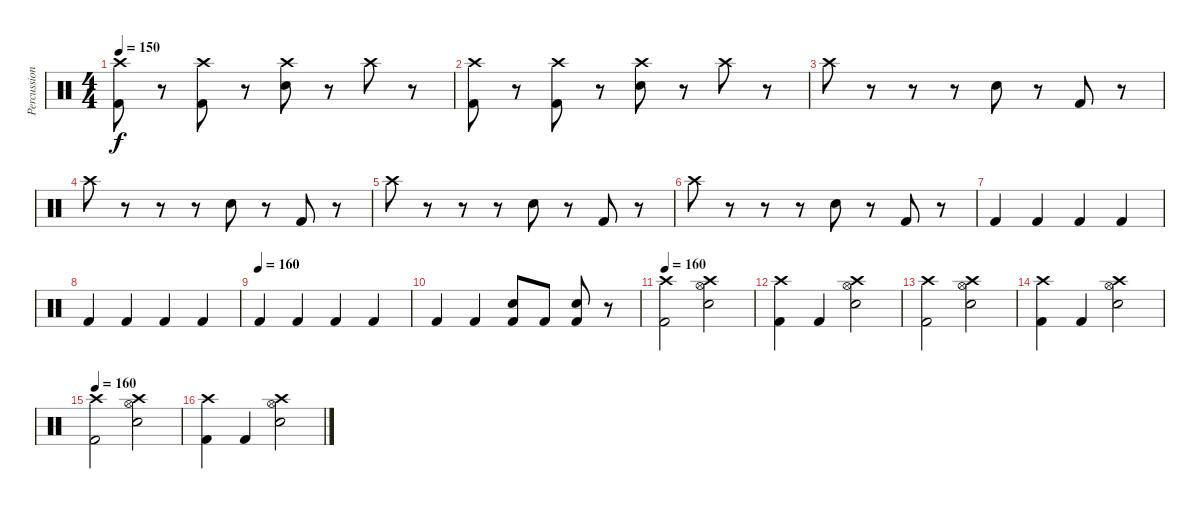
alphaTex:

\track ("Percussion [Patrick Wilson]" "Percussion") {instrument percussion}
\staff {score}
\articulation defaults
\ts (4 4)
\tempo 150
\clef neutral
\ks c
("Crash high (hit)" "Kick (hit) 2").8{dy f volume 13} r.8 ("Crash high (hit)" "Kick (hit) 2").8 r.8 ("Crash high (hit)" "Snare (hit) 2").8 r.8 "Crash high (hit)".8 r.8 |
("Crash high (hit)" "Kick (hit) 2").8 r.8 ("Crash high (hit)" "Kick (hit) 2").8 r.8 ("Crash high (hit)" "Snare (hit) 2").8 r.8 "Crash high (hit)".8 r.8 |
"Crash high (hit)".8 r.8 r.8 r.8 "Snare (hit) 2".8 r.8 "Kick (hit) 2".8 r.8 |
"Crash high (hit)".8 r.8 r.8 r.8 "Snare (hit) 2".8 r.8 "Kick (hit) 2".8 r.8 |
"Crash high (hit)".8{volume 13} r.8 r.8 r.8 "Snare (hit) 2".8 r.8 "Kick (hit) 2".8 r.8 |
"Crash high (hit)".8 r.8 r.8 r.8 "Snare (hit) 2".8 r.8 "Kick (hit) 2".8 r.8 |
"Kick (hit) 2".4{volume 13} "Kick (hit) 2".4 "Kick (hit) 2".4 "Kick (hit) 2".4 |
"Kick (hit) 2".4 "Kick (hit) 2".4 "Kick (hit) 2".4 "Kick (hit) 2".4 |
\tempo (160)
"Kick (hit) 2".4{volume 13} "Kick (hit) 2".4 "Kick (hit) 2".4 "Kick (hit) 2".4 |
"Kick (hit) 2".4 "Kick (hit) 2".4 ("Snare (hit) 2" "Kick (hit) 2").8 "Kick (hit) 2".8 ("Snare (hit) 2" "Kick (hit) 2").8 r.8 |
\tempo 160
("Crash high (hit)" "Kick (hit) 2").2{volume 13} ("Crash high (hit)" "Hi-Hat (open)" "Snare (hit) 2").2 |
("Crash high (hit)" "Kick (hit) 2").4 "Kick (hit) 2".4 ("Crash high (hit)" "Hi-Hat (open)" "Snare (hit) 2").2 |
("Crash high (hit)" "Kick (hit) 2").2 ("Crash high (hit)" "Hi-Hat (open)" "Snare (hit) 2").2 |
("Crash high (hit)" "Kick (hit) 2").4 "Kick (hit) 2".4 ("Crash high (hit)" "Hi-Hat (open)" "Snare (hit) 2").2 |
\tempo 160
("Crash high (hit)" "Kick (hit) 2").2{volume 13} ("Crash high (hit)" "Hi-Hat (open)" "Snare (hit) 2").2 |
("Crash high (hit)" "Kick (hit) 2").4 "Kick (hit) 2".4 ("Crash high (hit)" "Hi-Hat (open)" "Snare (hit) 2").2
